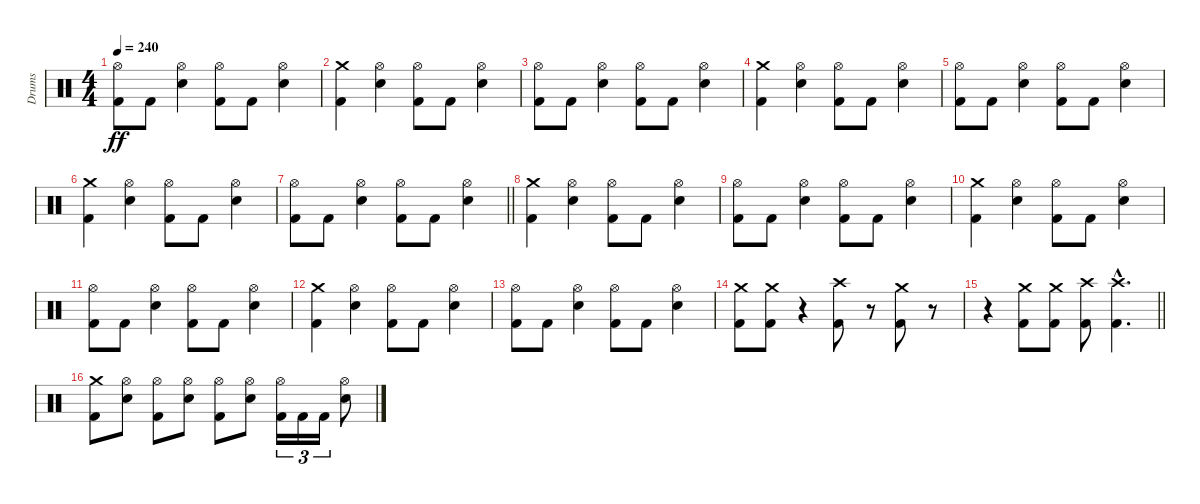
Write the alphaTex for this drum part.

\track ("Drums" "Drums") {instrument percussion}
\staff {score}
\articulation defaults
\ts (4 4)
\tempo 240
\clef neutral
\ks c
("Hi-Hat (open)" "Kick (hit) 2").8{dy ff} "Kick (hit) 2".8 ("Hi-Hat (open)" "Snare (hit) 2").4 ("Hi-Hat (open)" "Kick (hit) 2").8 "Kick (hit) 2".8 ("Hi-Hat (open)" "Snare (hit) 2").4 |
("Crash medium (hit)" "Kick (hit) 2").4 ("Hi-Hat (open)" "Snare (hit) 2").4 ("Hi-Hat (open)" "Kick (hit) 2").8 "Kick (hit) 2".8 ("Hi-Hat (open)" "Snare (hit) 2").4 |
("Hi-Hat (open)" "Kick (hit) 2").8 "Kick (hit) 2".8 ("Hi-Hat (open)" "Snare (hit) 2").4 ("Hi-Hat (open)" "Kick (hit) 2").8 "Kick (hit) 2".8 ("Hi-Hat (open)" "Snare (hit) 2").4 |
("Crash medium (hit)" "Kick (hit) 2").4 ("Hi-Hat (open)" "Snare (hit) 2").4 ("Hi-Hat (open)" "Kick (hit) 2").8 "Kick (hit) 2".8 ("Hi-Hat (open)" "Snare (hit) 2").4 |
("Hi-Hat (open)" "Kick (hit) 2").8 "Kick (hit) 2".8 ("Hi-Hat (open)" "Snare (hit) 2").4 ("Hi-Hat (open)" "Kick (hit) 2").8 "Kick (hit) 2".8 ("Hi-Hat (open)" "Snare (hit) 2").4 |
("Crash medium (hit)" "Kick (hit) 2").4 ("Hi-Hat (open)" "Snare (hit) 2").4 ("Hi-Hat (open)" "Kick (hit) 2").8 "Kick (hit) 2".8 ("Hi-Hat (open)" "Snare (hit) 2").4 |
\barLineRight lightlight
("Hi-Hat (open)" "Kick (hit) 2").8 "Kick (hit) 2".8 ("Hi-Hat (open)" "Snare (hit) 2").4 ("Hi-Hat (open)" "Kick (hit) 2").8 "Kick (hit) 2".8 ("Hi-Hat (open)" "Snare (hit) 2").4 |
("Crash medium (hit)" "Kick (hit) 2").4 ("Hi-Hat (open)" "Snare (hit) 2").4 ("Hi-Hat (open)" "Kick (hit) 2").8 "Kick (hit) 2".8 ("Hi-Hat (open)" "Snare (hit) 2").4 |
("Hi-Hat (open)" "Kick (hit) 2").8 "Kick (hit) 2".8 ("Hi-Hat (open)" "Snare (hit) 2").4 ("Hi-Hat (open)" "Kick (hit) 2").8 "Kick (hit) 2".8 ("Hi-Hat (open)" "Snare (hit) 2").4 |
("Crash medium (hit)" "Kick (hit) 2").4 ("Hi-Hat (open)" "Snare (hit) 2").4 ("Hi-Hat (open)" "Kick (hit) 2").8 "Kick (hit) 2".8 ("Hi-Hat (open)" "Snare (hit) 2").4 |
("Hi-Hat (open)" "Kick (hit) 2").8 "Kick (hit) 2".8 ("Hi-Hat (open)" "Snare (hit) 2").4 ("Hi-Hat (open)" "Kick (hit) 2").8 "Kick (hit) 2".8 ("Hi-Hat (open)" "Snare (hit) 2").4 |
("Crash medium (hit)" "Kick (hit) 2").4 ("Hi-Hat (open)" "Snare (hit) 2").4 ("Hi-Hat (open)" "Kick (hit) 2").8 "Kick (hit) 2".8 ("Hi-Hat (open)" "Snare (hit) 2").4 |
("Hi-Hat (open)" "Kick (hit) 2").8 "Kick (hit) 2".8 ("Hi-Hat (open)" "Snare (hit) 2").4 ("Hi-Hat (open)" "Kick (hit) 2").8 "Kick (hit) 2".8 ("Hi-Hat (open)" "Snare (hit) 2").4 |
("Crash medium (hit)" "Kick (hit) 2").8 ("Crash medium (hit)" "Kick (hit) 2").8 r.4 ("Crash high (hit)" "Kick (hit) 2").8 r.8 ("Crash medium (hit)" "Kick (hit) 2").8 r.8 |
\barLineRight lightlight
r.4 ("Crash medium (hit)" "Kick (hit) 2").8 ("Crash medium (hit)" "Kick (hit) 2").8 ("Crash high (hit)" "Kick (hit) 2").8 ("Crash high (hit)"{hac} "Kick (hit) 2"{hac}).4{d} |
("Crash medium (hit)" "Kick (hit) 2").8 ("Hi-Hat (open)" "Snare (hit) 2").8 ("Hi-Hat (open)" "Kick (hit) 2").8 ("Hi-Hat (open)" "Snare (hit) 2").8 ("Hi-Hat (open)" "Kick (hit) 2").8 ("Hi-Hat (open)" "Snare (hit) 2").8 ("Hi-Hat (open)" "Kick (hit) 2").16{tu (3 2)} "Kick (hit) 2".16{tu (3 2)} "Kick (hit) 2".16{tu (3 2)} ("Hi-Hat (open)" "Snare (hit) 2").8
